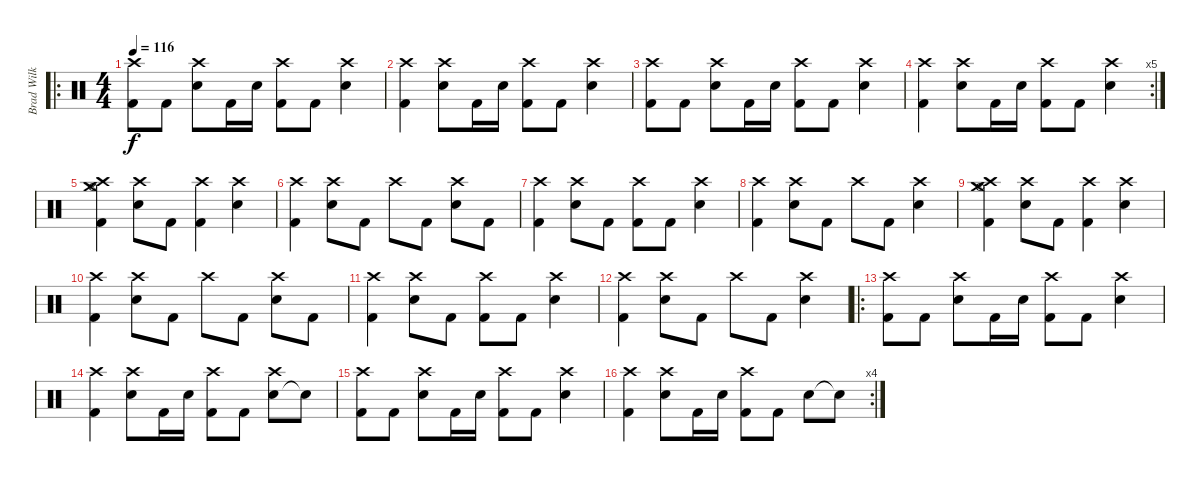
\track ("Brad Wilk" "Brad Wilk") {instrument percussion}
\staff {score}
\articulation defaults
\ro
\ts (4 4)
\tempo 116
\clef neutral
\ks c
("Crash high (hit)" "Kick (hit) 2").8{dy f} "Kick (hit) 2".8 ("Crash high (hit)" "Snare (hit) 2").8 "Kick (hit) 2".16 "Snare (hit) 2".16 ("Crash high (hit)" "Kick (hit) 2").8 "Kick (hit) 2".8 ("Crash high (hit)" "Snare (hit) 2").4 |
("Crash high (hit)" "Kick (hit) 2").4 ("Crash high (hit)" "Snare (hit) 2").8 "Kick (hit) 2".16 "Snare (hit) 2".16 ("Crash high (hit)" "Kick (hit) 2").8 "Kick (hit) 2".8 ("Crash high (hit)" "Snare (hit) 2").4 |
("Crash high (hit)" "Kick (hit) 2").8 "Kick (hit) 2".8 ("Crash high (hit)" "Snare (hit) 2").8 "Kick (hit) 2".16 "Snare (hit) 2".16 ("Crash high (hit)" "Kick (hit) 2").8 "Kick (hit) 2".8 ("Crash high (hit)" "Snare (hit) 2").4 |
\rc 5
("Crash high (hit)" "Kick (hit) 2").4 ("Crash high (hit)" "Snare (hit) 2").8 "Kick (hit) 2".16 "Snare (hit) 2".16 ("Crash high (hit)" "Kick (hit) 2").8 "Kick (hit) 2".8 ("Crash high (hit)" "Snare (hit) 2").4 |
("Crash high (hit)" "Kick (hit) 2" "Crash medium (hit)" "Hi-Hat (open)").4 ("Crash high (hit)" "Snare (hit) 2").8 "Kick (hit) 2".8 ("Crash high (hit)" "Kick (hit) 2").4 ("Crash high (hit)" "Snare (hit) 2").4 |
("Crash high (hit)" "Kick (hit) 2").4 ("Crash high (hit)" "Snare (hit) 2").8 "Kick (hit) 2".8 "Crash high (hit)".8 "Kick (hit) 2".8 ("Crash high (hit)" "Snare (hit) 2").8 "Kick (hit) 2".8 |
("Crash high (hit)" "Kick (hit) 2").4 ("Crash high (hit)" "Snare (hit) 2").8 "Kick (hit) 2".8 ("Crash high (hit)" "Kick (hit) 2").8 "Kick (hit) 2".8 ("Crash high (hit)" "Snare (hit) 2").4 |
("Crash high (hit)" "Kick (hit) 2").4 ("Crash high (hit)" "Snare (hit) 2").8 "Kick (hit) 2".8 "Crash high (hit)".8 "Kick (hit) 2".8 ("Crash high (hit)" "Snare (hit) 2").4 |
("Crash high (hit)" "Kick (hit) 2" "Crash medium (hit)" "Hi-Hat (open)").4 ("Crash high (hit)" "Snare (hit) 2").8 "Kick (hit) 2".8 ("Crash high (hit)" "Kick (hit) 2").4 ("Crash high (hit)" "Snare (hit) 2").4 |
("Crash high (hit)" "Kick (hit) 2").4 ("Crash high (hit)" "Snare (hit) 2").8 "Kick (hit) 2".8 "Crash high (hit)".8 "Kick (hit) 2".8 ("Crash high (hit)" "Snare (hit) 2").8 "Kick (hit) 2".8 |
("Crash high (hit)" "Kick (hit) 2").4 ("Crash high (hit)" "Snare (hit) 2").8 "Kick (hit) 2".8 ("Crash high (hit)" "Kick (hit) 2").8 "Kick (hit) 2".8 ("Crash high (hit)" "Snare (hit) 2").4 |
("Crash high (hit)" "Kick (hit) 2").4 ("Crash high (hit)" "Snare (hit) 2").8 "Kick (hit) 2".8 "Crash high (hit)".8 "Kick (hit) 2".8 ("Crash high (hit)" "Snare (hit) 2").4 |
\ro
("Kick (hit) 2" "Crash high (hit)").8 "Kick (hit) 2".8 ("Snare (hit) 2" "Crash high (hit)").8 "Kick (hit) 2".16 "Snare (hit) 2".16 ("Kick (hit) 2" "Crash high (hit)").8 "Kick (hit) 2".8 ("Snare (hit) 2" "Crash high (hit)").4 |
("Kick (hit) 2" "Crash high (hit)").4 ("Snare (hit) 2" "Crash high (hit)").8 "Kick (hit) 2".16 "Snare (hit) 2".16 ("Kick (hit) 2" "Crash high (hit)").8 "Kick (hit) 2".8 ("Snare (hit) 2" "Crash high (hit)").8 "Snare (hit)"{t}.8 |
("Kick (hit) 2" "Crash high (hit)").8 "Kick (hit) 2".8 ("Snare (hit) 2" "Crash high (hit)").8 "Kick (hit) 2".16 "Snare (hit) 2".16 ("Kick (hit) 2" "Crash high (hit)").8 "Kick (hit) 2".8 ("Snare (hit) 2" "Crash high (hit)").4 |
\rc 4
("Kick (hit) 2" "Crash high (hit)").4 ("Snare (hit) 2" "Crash high (hit)").8 "Kick (hit) 2".16 "Snare (hit) 2".16 ("Kick (hit) 2" "Crash high (hit)").8 "Kick (hit) 2".8 "Snare (hit) 2".8 "Snare (hit)"{t}.8
